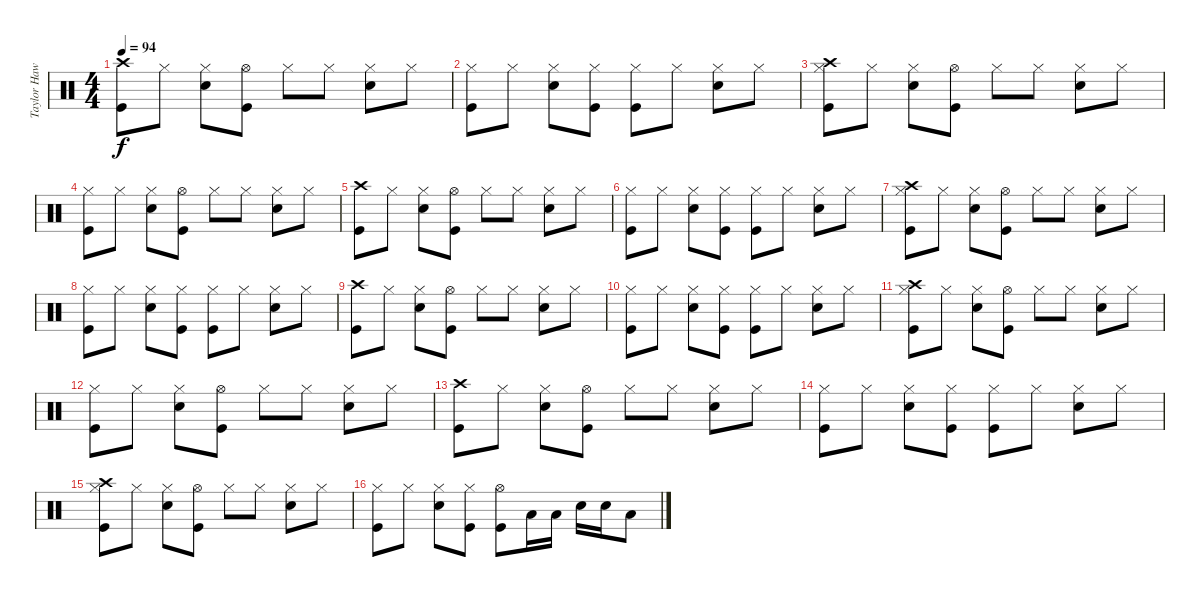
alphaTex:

\track ("Taylor Hawkins - Drums" "Taylor Haw") {instrument percussion}
\staff {score}
\articulation defaults
\ts (4 4)
\tempo 94
\clef neutral
\ks c
("Crash high (hit)" "Kick (hit)").8{dy f} "Hi-Hat (closed)".8 ("Hi-Hat (closed)" "Electric Snare (hit)").8 ("Hi-Hat (open)" "Kick (hit)").8 "Hi-Hat (closed)".8 "Hi-Hat (closed)".8 ("Hi-Hat (closed)" "Electric Snare (hit)").8 "Hi-Hat (closed)".8 |
("Hi-Hat (closed)" "Kick (hit)").8 "Hi-Hat (closed)".8 ("Hi-Hat (closed)" "Electric Snare (hit)").8 ("Hi-Hat (closed)" "Kick (hit)").8 ("Hi-Hat (closed)" "Kick (hit)").8 "Hi-Hat (closed)".8 ("Hi-Hat (closed)" "Electric Snare (hit)").8 "Hi-Hat (closed)".8 |
("Crash high (hit)" "Hi-Hat (closed)" "Kick (hit)").8 "Hi-Hat (closed)".8 ("Hi-Hat (closed)" "Electric Snare (hit)").8 ("Hi-Hat (open)" "Kick (hit)").8 "Hi-Hat (closed)".8 "Hi-Hat (closed)".8 ("Hi-Hat (closed)" "Electric Snare (hit)").8 "Hi-Hat (closed)".8 |
("Hi-Hat (closed)" "Kick (hit)").8 "Hi-Hat (closed)".8 ("Hi-Hat (closed)" "Electric Snare (hit)").8 ("Hi-Hat (open)" "Kick (hit)").8 "Hi-Hat (closed)".8 "Hi-Hat (closed)".8 ("Hi-Hat (closed)" "Electric Snare (hit)").8 "Hi-Hat (closed)".8 |
("Crash high (hit)" "Kick (hit)").8 "Hi-Hat (closed)".8 ("Hi-Hat (closed)" "Electric Snare (hit)").8 ("Hi-Hat (open)" "Kick (hit)").8 "Hi-Hat (closed)".8 "Hi-Hat (closed)".8 ("Hi-Hat (closed)" "Electric Snare (hit)").8 "Hi-Hat (closed)".8 |
("Hi-Hat (closed)" "Kick (hit)").8 "Hi-Hat (closed)".8 ("Hi-Hat (closed)" "Electric Snare (hit)").8 ("Hi-Hat (closed)" "Kick (hit)").8 ("Hi-Hat (closed)" "Kick (hit)").8 "Hi-Hat (closed)".8 ("Hi-Hat (closed)" "Electric Snare (hit)").8 "Hi-Hat (closed)".8 |
("Crash high (hit)" "Hi-Hat (closed)" "Kick (hit)").8 "Hi-Hat (closed)".8 ("Hi-Hat (closed)" "Electric Snare (hit)").8 ("Hi-Hat (open)" "Kick (hit)").8 "Hi-Hat (closed)".8 "Hi-Hat (closed)".8 ("Hi-Hat (closed)" "Electric Snare (hit)").8 "Hi-Hat (closed)".8 |
("Hi-Hat (closed)" "Kick (hit)").8 "Hi-Hat (closed)".8 ("Hi-Hat (closed)" "Electric Snare (hit)").8 ("Hi-Hat (closed)" "Kick (hit)").8 ("Hi-Hat (closed)" "Kick (hit)").8 "Hi-Hat (closed)".8 ("Hi-Hat (closed)" "Electric Snare (hit)").8 "Hi-Hat (closed)".8 |
("Crash high (hit)" "Kick (hit)").8 "Hi-Hat (closed)".8 ("Hi-Hat (closed)" "Electric Snare (hit)").8 ("Hi-Hat (open)" "Kick (hit)").8 "Hi-Hat (closed)".8 "Hi-Hat (closed)".8 ("Hi-Hat (closed)" "Electric Snare (hit)").8 "Hi-Hat (closed)".8 |
("Hi-Hat (closed)" "Kick (hit)").8 "Hi-Hat (closed)".8 ("Hi-Hat (closed)" "Electric Snare (hit)").8 ("Hi-Hat (closed)" "Kick (hit)").8 ("Hi-Hat (closed)" "Kick (hit)").8 "Hi-Hat (closed)".8 ("Hi-Hat (closed)" "Electric Snare (hit)").8 "Hi-Hat (closed)".8 |
("Crash high (hit)" "Hi-Hat (closed)" "Kick (hit)").8 "Hi-Hat (closed)".8 ("Hi-Hat (closed)" "Electric Snare (hit)").8 ("Hi-Hat (open)" "Kick (hit)").8 "Hi-Hat (closed)".8 "Hi-Hat (closed)".8 ("Hi-Hat (closed)" "Electric Snare (hit)").8 "Hi-Hat (closed)".8 |
("Hi-Hat (closed)" "Kick (hit)").8 "Hi-Hat (closed)".8 ("Hi-Hat (closed)" "Electric Snare (hit)").8 ("Hi-Hat (open)" "Kick (hit)").8 "Hi-Hat (closed)".8 "Hi-Hat (closed)".8 ("Hi-Hat (closed)" "Electric Snare (hit)").8 "Hi-Hat (closed)".8 |
("Crash high (hit)" "Kick (hit)").8 "Hi-Hat (closed)".8 ("Hi-Hat (closed)" "Electric Snare (hit)").8 ("Hi-Hat (open)" "Kick (hit)").8 "Hi-Hat (closed)".8 "Hi-Hat (closed)".8 ("Hi-Hat (closed)" "Electric Snare (hit)").8 "Hi-Hat (closed)".8 |
("Hi-Hat (closed)" "Kick (hit)").8 "Hi-Hat (closed)".8 ("Hi-Hat (closed)" "Electric Snare (hit)").8 ("Hi-Hat (closed)" "Kick (hit)").8 ("Hi-Hat (closed)" "Kick (hit)").8 "Hi-Hat (closed)".8 ("Hi-Hat (closed)" "Electric Snare (hit)").8 "Hi-Hat (closed)".8 |
("Crash high (hit)" "Hi-Hat (closed)" "Kick (hit)").8 "Hi-Hat (closed)".8 ("Hi-Hat (closed)" "Electric Snare (hit)").8 ("Hi-Hat (open)" "Kick (hit)").8 "Hi-Hat (closed)".8 "Hi-Hat (closed)".8 ("Hi-Hat (closed)" "Electric Snare (hit)").8 "Hi-Hat (closed)".8 |
("Hi-Hat (closed)" "Kick (hit)").8 "Hi-Hat (closed)".8 ("Hi-Hat (closed)" "Electric Snare (hit)").8 ("Hi-Hat (closed)" "Kick (hit)").8 ("Hi-Hat (open)" "Kick (hit)").8 "Low Tom (hit)".16 "Low Tom (hit)".16 "Electric Snare (hit)".16 "Electric Snare (hit)".16 "Low Floor Tom (hit)".8
